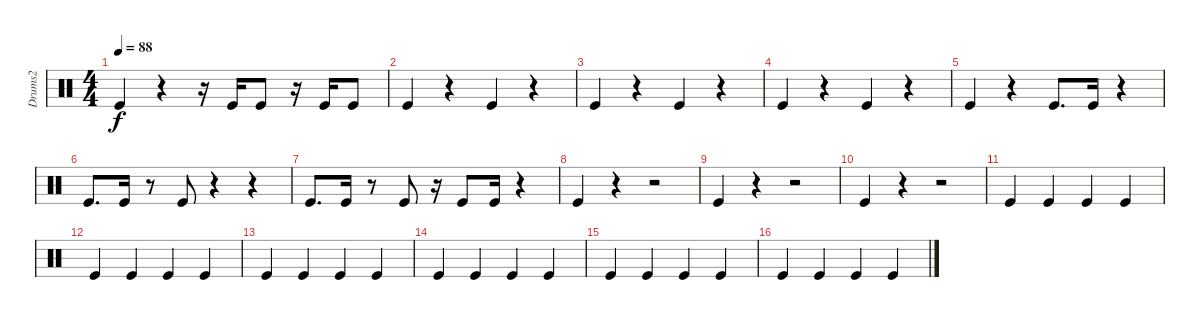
\track ("Drums2" "Drums2") {instrument percussion}
\staff {score}
\articulation defaults
\ts (4 4)
\tempo 88
\clef neutral
\ks c "Kick (hit)".4{dy f}
r.4 r.16 "Kick (hit)".16 "Kick (hit)".8 r.16 "Kick (hit)".16 "Kick (hit)".8 |
"Kick (hit)".4 r.4 "Kick (hit)".4 r.4 |
"Kick (hit)".4 r.4 "Kick (hit)".4 r.4 |
"Kick (hit)".4 r.4 "Kick (hit)".4 r.4 |
"Kick (hit)".4 r.4 "Kick (hit)".8{d} "Kick (hit)".16 r.4 |
"Kick (hit)".8{d} "Kick (hit)".16 r.8 "Kick (hit)".8 r.4 r.4 |
"Kick (hit)".8{d} "Kick (hit)".16 r.8 "Kick (hit)".8 r.16 "Kick (hit)".8 "Kick (hit)".16 r.4 |
"Kick (hit)".4 r.4 r.2 |
"Kick (hit)".4 r.4 r.2 |
"Kick (hit)".4 r.4 r.2 |
"Kick (hit)".4 "Kick (hit)".4 "Kick (hit)".4 "Kick (hit)".4 |
"Kick (hit)".4 "Kick (hit)".4 "Kick (hit)".4 "Kick (hit)".4 |
"Kick (hit)".4 "Kick (hit)".4 "Kick (hit)".4 "Kick (hit)".4 |
"Kick (hit)".4 "Kick (hit)".4 "Kick (hit)".4 "Kick (hit)".4 |
"Kick (hit)".4 "Kick (hit)".4 "Kick (hit)".4 "Kick (hit)".4 |
"Kick (hit)".4 "Kick (hit)".4 "Kick (hit)".4 "Kick (hit)".4
